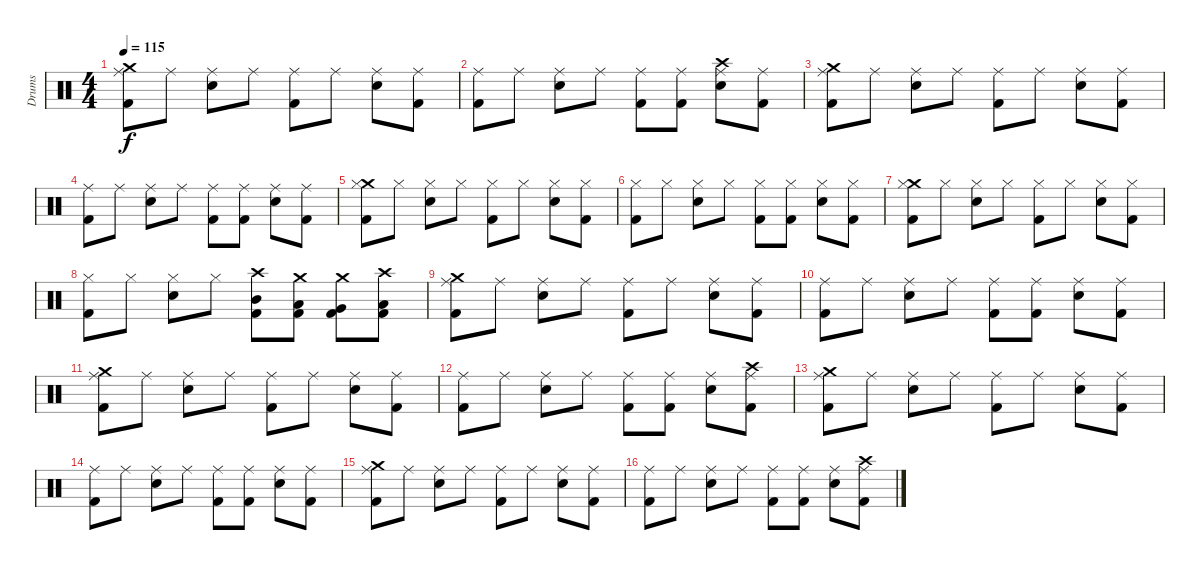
\track ("Drums" "Drums") {instrument percussion}
\staff {score}
\articulation defaults
\ts (4 4)
\tempo 115
\clef neutral
\ks c
("Crash medium (hit)" "Ride (middle)" "Kick (hit) 2").8{dy f} "Ride (middle)".8 ("Ride (middle)" "Snare (hit) 2").8 "Ride (middle)".8 ("Ride (middle)" "Kick (hit) 2").8 "Ride (middle)".8 ("Ride (middle)" "Snare (hit) 2").8 ("Ride (middle)" "Kick (hit) 2").8 |
("Ride (middle)" "Kick (hit) 2").8 "Ride (middle)".8 ("Ride (middle)" "Snare (hit) 2").8 "Ride (middle)".8 ("Ride (middle)" "Kick (hit) 2").8 ("Ride (middle)" "Kick (hit) 2").8 ("Crash high (hit)" "Ride (middle)" "Snare (hit) 2").8 ("Ride (middle)" "Kick (hit) 2").8 |
("Crash medium (hit)" "Ride (middle)" "Kick (hit) 2").8 "Ride (middle)".8 ("Ride (middle)" "Snare (hit) 2").8 "Ride (middle)".8 ("Ride (middle)" "Kick (hit) 2").8 "Ride (middle)".8 ("Ride (middle)" "Snare (hit) 2").8 ("Ride (middle)" "Kick (hit) 2").8 |
("Ride (middle)" "Kick (hit) 2").8 "Ride (middle)".8 ("Ride (middle)" "Snare (hit) 2").8 "Ride (middle)".8 ("Ride (middle)" "Kick (hit) 2").8 ("Ride (middle)" "Kick (hit) 2").8 ("Ride (middle)" "Snare (hit) 2").8 ("Ride (middle)" "Kick (hit) 2").8 |
("Crash medium (hit)" "Hi-Hat (closed)" "Kick (hit) 2").8 "Hi-Hat (closed)".8 ("Hi-Hat (closed)" "Snare (hit) 2").8 "Hi-Hat (closed)".8 ("Hi-Hat (closed)" "Kick (hit) 2").8 "Hi-Hat (closed)".8 ("Hi-Hat (closed)" "Snare (hit) 2").8 ("Hi-Hat (closed)" "Kick (hit) 2").8 |
("Hi-Hat (closed)" "Kick (hit) 2").8 "Hi-Hat (closed)".8 ("Hi-Hat (closed)" "Snare (hit) 2").8 "Hi-Hat (closed)".8 ("Hi-Hat (closed)" "Kick (hit) 2").8 ("Hi-Hat (closed)" "Kick (hit) 2").8 ("Hi-Hat (closed)" "Snare (hit) 2").8 ("Hi-Hat (closed)" "Kick (hit) 2").8 |
("Crash medium (hit)" "Hi-Hat (closed)" "Kick (hit) 2").8 "Hi-Hat (closed)".8 ("Hi-Hat (closed)" "Snare (hit) 2").8 "Hi-Hat (closed)".8 ("Hi-Hat (closed)" "Kick (hit) 2").8 "Hi-Hat (closed)".8 ("Hi-Hat (closed)" "Snare (hit) 2").8 ("Hi-Hat (closed)" "Kick (hit) 2").8 |
("Hi-Hat (closed)" "Kick (hit) 2").8 "Hi-Hat (closed)".8 ("Hi-Hat (closed)" "Snare (hit) 2").8 "Hi-Hat (closed)".8 ("Crash high (hit)" "Mid Tom (hit)" "Kick (hit) 2").8 ("Crash medium (hit)" "Low Tom (hit)" "Kick (hit) 2").8 ("Crash medium (hit)" "Very Low Tom (hit)" "Kick (hit) 2").8 ("Crash high (hit)" "Low Floor Tom (hit)" "Kick (hit) 2").8 |
("Crash medium (hit)" "Ride (middle)" "Kick (hit) 2").8 "Ride (middle)".8 ("Ride (middle)" "Snare (hit) 2").8 "Ride (middle)".8 ("Ride (middle)" "Kick (hit) 2").8 "Ride (middle)".8 ("Ride (middle)" "Snare (hit) 2").8 ("Ride (middle)" "Kick (hit) 2").8 |
("Ride (middle)" "Kick (hit) 2").8 "Ride (middle)".8 ("Ride (middle)" "Snare (hit) 2").8 "Ride (middle)".8 ("Ride (middle)" "Kick (hit) 2").8 ("Ride (middle)" "Kick (hit) 2").8 ("Ride (middle)" "Snare (hit) 2").8 ("Ride (middle)" "Kick (hit) 2").8 |
("Crash medium (hit)" "Ride (middle)" "Kick (hit) 2").8 "Ride (middle)".8 ("Ride (middle)" "Snare (hit) 2").8 "Ride (middle)".8 ("Ride (middle)" "Kick (hit) 2").8 "Ride (middle)".8 ("Ride (middle)" "Snare (hit) 2").8 ("Ride (middle)" "Kick (hit) 2").8 |
("Ride (middle)" "Kick (hit) 2").8 "Ride (middle)".8 ("Ride (middle)" "Snare (hit) 2").8 "Ride (middle)".8 ("Ride (middle)" "Kick (hit) 2").8 ("Ride (middle)" "Kick (hit) 2").8 ("Ride (middle)" "Snare (hit) 2").8 ("Crash high (hit)" "Ride (middle)" "Kick (hit) 2").8 |
("Crash medium (hit)" "Ride (middle)" "Kick (hit) 2").8 "Ride (middle)".8 ("Ride (middle)" "Snare (hit) 2").8 "Ride (middle)".8 ("Ride (middle)" "Kick (hit) 2").8 "Ride (middle)".8 ("Ride (middle)" "Snare (hit) 2").8 ("Ride (middle)" "Kick (hit) 2").8 |
("Ride (middle)" "Kick (hit) 2").8 "Ride (middle)".8 ("Ride (middle)" "Snare (hit) 2").8 "Ride (middle)".8 ("Ride (middle)" "Kick (hit) 2").8 ("Ride (middle)" "Kick (hit) 2").8 ("Ride (middle)" "Snare (hit) 2").8 ("Ride (middle)" "Kick (hit) 2").8 |
("Crash medium (hit)" "Ride (middle)" "Kick (hit) 2").8 "Ride (middle)".8 ("Ride (middle)" "Snare (hit) 2").8 "Ride (middle)".8 ("Ride (middle)" "Kick (hit) 2").8 "Ride (middle)".8 ("Ride (middle)" "Snare (hit) 2").8 ("Ride (middle)" "Kick (hit) 2").8 |
("Ride (middle)" "Kick (hit) 2").8 "Ride (middle)".8 ("Ride (middle)" "Snare (hit) 2").8 "Ride (middle)".8 ("Ride (middle)" "Kick (hit) 2").8 ("Ride (middle)" "Kick (hit) 2").8 ("Ride (middle)" "Snare (hit) 2").8 ("Crash high (hit)" "Ride (middle)" "Kick (hit) 2").8
